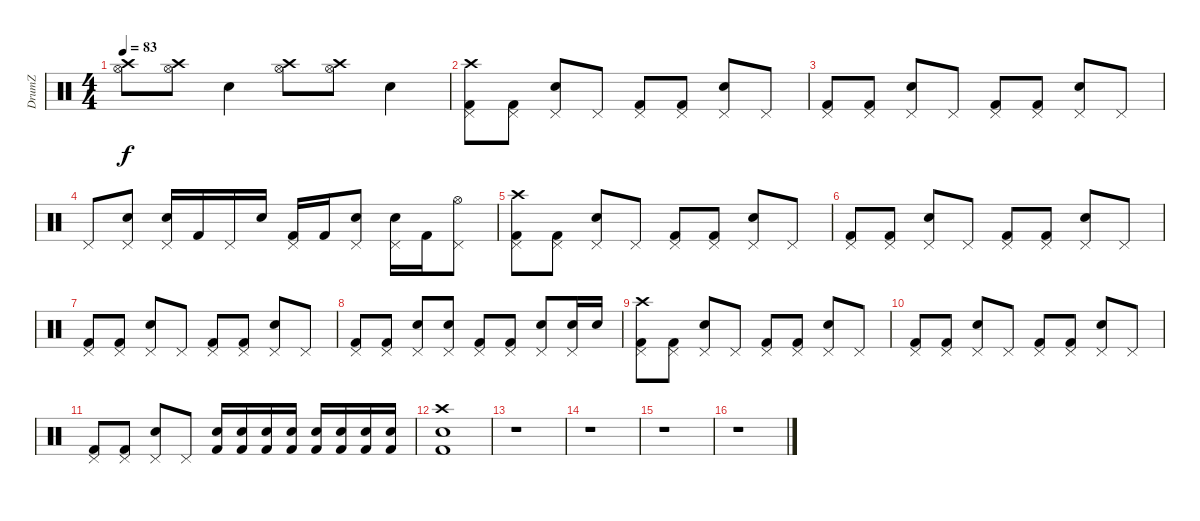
\track ("DrumZ" "DrumZ") {instrument percussion}
\staff {score}
\articulation defaults
\ts (4 4)
\tempo 83
\clef neutral
\ks c
("Crash high (hit)" "Hi-Hat (open)").8{dy f} ("Crash high (hit)" "Hi-Hat (open)").8 "Electric Snare (hit)".4 ("Crash high (hit)" "Hi-Hat (open)").8 ("Crash high (hit)" "Hi-Hat (open)").8 "Electric Snare (hit)".4 |
("Pedal Hi-Hat (hit)" "Crash high (hit)" "Kick (hit) 2").8 ("Pedal Hi-Hat (hit)" "Kick (hit) 2").8 ("Pedal Hi-Hat (hit)" "Electric Snare (hit)").8 "Pedal Hi-Hat (hit)".8 ("Pedal Hi-Hat (hit)" "Kick (hit) 2").8 ("Pedal Hi-Hat (hit)" "Kick (hit) 2").8 ("Pedal Hi-Hat (hit)" "Electric Snare (hit)").8 "Pedal Hi-Hat (hit)".8 |
("Pedal Hi-Hat (hit)" "Kick (hit) 2").8 ("Pedal Hi-Hat (hit)" "Kick (hit) 2").8 ("Pedal Hi-Hat (hit)" "Electric Snare (hit)").8 "Pedal Hi-Hat (hit)".8 ("Pedal Hi-Hat (hit)" "Kick (hit) 2").8 ("Pedal Hi-Hat (hit)" "Kick (hit) 2").8 ("Pedal Hi-Hat (hit)" "Electric Snare (hit)").8 "Pedal Hi-Hat (hit)".8 |
"Pedal Hi-Hat (hit)".8 ("Pedal Hi-Hat (hit)" "Electric Snare (hit)").8 ("Pedal Hi-Hat (hit)" "Electric Snare (hit)").16 "Kick (hit) 2".16 "Pedal Hi-Hat (hit)".16 "Electric Snare (hit)".16 ("Pedal Hi-Hat (hit)" "Kick (hit) 2").16 "Kick (hit) 2".16 ("Pedal Hi-Hat (hit)" "Electric Snare (hit)").8 ("Pedal Hi-Hat (hit)" "Electric Snare (hit)").16 "Kick (hit) 2".16 ("Pedal Hi-Hat (hit)" "Hi-Hat (open)").8 |
("Pedal Hi-Hat (hit)" "Crash high (hit)" "Kick (hit) 2").8 ("Pedal Hi-Hat (hit)" "Kick (hit) 2").8 ("Pedal Hi-Hat (hit)" "Electric Snare (hit)").8 "Pedal Hi-Hat (hit)".8 ("Pedal Hi-Hat (hit)" "Kick (hit) 2").8 ("Pedal Hi-Hat (hit)" "Kick (hit) 2").8 ("Pedal Hi-Hat (hit)" "Electric Snare (hit)").8 "Pedal Hi-Hat (hit)".8 |
("Pedal Hi-Hat (hit)" "Kick (hit) 2").8 ("Pedal Hi-Hat (hit)" "Kick (hit) 2").8 ("Pedal Hi-Hat (hit)" "Electric Snare (hit)").8 "Pedal Hi-Hat (hit)".8 ("Pedal Hi-Hat (hit)" "Kick (hit) 2").8 ("Pedal Hi-Hat (hit)" "Kick (hit) 2").8 ("Pedal Hi-Hat (hit)" "Electric Snare (hit)").8 "Pedal Hi-Hat (hit)".8 |
("Pedal Hi-Hat (hit)" "Kick (hit) 2").8 ("Pedal Hi-Hat (hit)" "Kick (hit) 2").8 ("Pedal Hi-Hat (hit)" "Electric Snare (hit)").8 "Pedal Hi-Hat (hit)".8 ("Pedal Hi-Hat (hit)" "Kick (hit) 2").8 ("Pedal Hi-Hat (hit)" "Kick (hit) 2").8 ("Pedal Hi-Hat (hit)" "Electric Snare (hit)").8 "Pedal Hi-Hat (hit)".8 |
("Pedal Hi-Hat (hit)" "Kick (hit) 2").8 ("Pedal Hi-Hat (hit)" "Kick (hit) 2").8 ("Pedal Hi-Hat (hit)" "Electric Snare (hit)").8 ("Pedal Hi-Hat (hit)" "Electric Snare (hit)").8 ("Pedal Hi-Hat (hit)" "Kick (hit) 2").8 ("Pedal Hi-Hat (hit)" "Kick (hit) 2").8 ("Pedal Hi-Hat (hit)" "Electric Snare (hit)").8 ("Pedal Hi-Hat (hit)" "Electric Snare (hit)").16 "Electric Snare (hit)".16 |
("Pedal Hi-Hat (hit)" "Crash high (hit)" "Kick (hit) 2").8 ("Pedal Hi-Hat (hit)" "Kick (hit) 2").8 ("Pedal Hi-Hat (hit)" "Electric Snare (hit)").8 "Pedal Hi-Hat (hit)".8 ("Pedal Hi-Hat (hit)" "Kick (hit) 2").8 ("Pedal Hi-Hat (hit)" "Kick (hit) 2").8 ("Pedal Hi-Hat (hit)" "Electric Snare (hit)").8 "Pedal Hi-Hat (hit)".8 |
("Pedal Hi-Hat (hit)" "Kick (hit) 2").8 ("Pedal Hi-Hat (hit)" "Kick (hit) 2").8 ("Pedal Hi-Hat (hit)" "Electric Snare (hit)").8 "Pedal Hi-Hat (hit)".8 ("Pedal Hi-Hat (hit)" "Kick (hit) 2").8 ("Pedal Hi-Hat (hit)" "Kick (hit) 2").8 ("Pedal Hi-Hat (hit)" "Electric Snare (hit)").8 "Pedal Hi-Hat (hit)".8 |
("Pedal Hi-Hat (hit)" "Kick (hit) 2").8 ("Pedal Hi-Hat (hit)" "Kick (hit) 2").8 ("Pedal Hi-Hat (hit)" "Electric Snare (hit)").8 "Pedal Hi-Hat (hit)".8 ("Snare (hit) 2" "Kick (hit) 2").16 ("Snare (hit) 2" "Kick (hit) 2").16 ("Snare (hit) 2" "Kick (hit) 2").16 ("Snare (hit) 2" "Kick (hit) 2").16 ("Snare (hit) 2" "Kick (hit) 2").16 ("Snare (hit) 2" "Kick (hit) 2").16 ("Snare (hit) 2" "Kick (hit) 2").16 ("Snare (hit) 2" "Kick (hit) 2").16 |
("Electric Snare (hit)" "Crash high (hit)" "Kick (hit) 2").1 |
r.1 |
r.1 |
r.1 |
r.1
